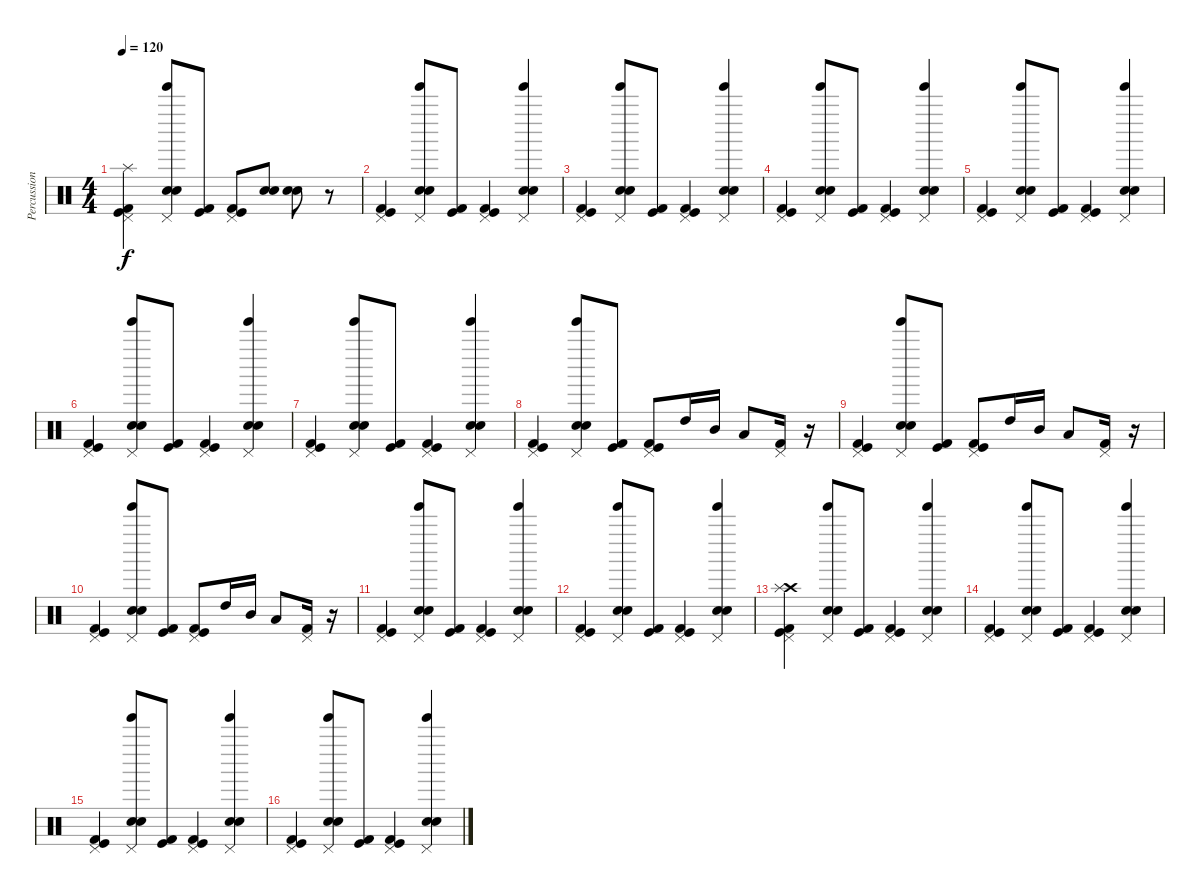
\track ("Percussion" "Percussion") {instrument percussion}
\staff {score}
\articulation defaults
\ts (4 4)
\tempo 120
\clef neutral
\ks c
("Splash (hit)" "Pedal Hi-Hat (hit)" "Kick (hit)" "Kick (hit) 2").4{dy f} ("Tinkle Bell (hit)" "Pedal Hi-Hat (hit)" "Snare (hit) 2" "Electric Snare (hit)").8 ("Kick (hit)" "Kick (hit) 2").8 ("Pedal Hi-Hat (hit)" "Kick (hit)" "Kick (hit) 2").8 ("Snare (hit) 2" "Snare (hit) 2").8 ("Snare (hit) 2" "Snare (hit) 2").8 r.8 |
("Pedal Hi-Hat (hit)" "Kick (hit)" "Kick (hit) 2").4 ("Tinkle Bell (hit)" "Pedal Hi-Hat (hit)" "Snare (hit) 2" "Electric Snare (hit)").8 ("Kick (hit)" "Kick (hit) 2").8 ("Pedal Hi-Hat (hit)" "Kick (hit)" "Kick (hit) 2").4 ("Tinkle Bell (hit)" "Pedal Hi-Hat (hit)" "Snare (hit) 2" "Electric Snare (hit)").4 |
("Pedal Hi-Hat (hit)" "Kick (hit)" "Kick (hit) 2").4 ("Tinkle Bell (hit)" "Pedal Hi-Hat (hit)" "Snare (hit) 2" "Electric Snare (hit)").8 ("Kick (hit)" "Kick (hit) 2").8 ("Pedal Hi-Hat (hit)" "Kick (hit)" "Kick (hit) 2").4 ("Tinkle Bell (hit)" "Pedal Hi-Hat (hit)" "Snare (hit) 2" "Electric Snare (hit)").4 |
("Pedal Hi-Hat (hit)" "Kick (hit)" "Kick (hit) 2").4 ("Tinkle Bell (hit)" "Pedal Hi-Hat (hit)" "Snare (hit) 2" "Electric Snare (hit)").8 ("Kick (hit)" "Kick (hit) 2").8 ("Pedal Hi-Hat (hit)" "Kick (hit)" "Kick (hit) 2").4 ("Tinkle Bell (hit)" "Pedal Hi-Hat (hit)" "Snare (hit) 2" "Electric Snare (hit)").4 |
("Pedal Hi-Hat (hit)" "Kick (hit)" "Kick (hit) 2").4 ("Tinkle Bell (hit)" "Pedal Hi-Hat (hit)" "Snare (hit) 2" "Electric Snare (hit)").8 ("Kick (hit)" "Kick (hit) 2").8 ("Pedal Hi-Hat (hit)" "Kick (hit)" "Kick (hit) 2").4 ("Tinkle Bell (hit)" "Pedal Hi-Hat (hit)" "Snare (hit) 2" "Electric Snare (hit)").4 |
("Pedal Hi-Hat (hit)" "Kick (hit)" "Kick (hit) 2").4 ("Tinkle Bell (hit)" "Pedal Hi-Hat (hit)" "Snare (hit) 2" "Electric Snare (hit)").8 ("Kick (hit)" "Kick (hit) 2").8 ("Pedal Hi-Hat (hit)" "Kick (hit)" "Kick (hit) 2").4 ("Tinkle Bell (hit)" "Pedal Hi-Hat (hit)" "Snare (hit) 2" "Electric Snare (hit)").4 |
("Pedal Hi-Hat (hit)" "Kick (hit)" "Kick (hit) 2").4 ("Tinkle Bell (hit)" "Pedal Hi-Hat (hit)" "Snare (hit) 2" "Electric Snare (hit)").8 ("Kick (hit)" "Kick (hit) 2").8 ("Pedal Hi-Hat (hit)" "Kick (hit)" "Kick (hit) 2").4 ("Tinkle Bell (hit)" "Pedal Hi-Hat (hit)" "Snare (hit) 2" "Electric Snare (hit)").4 |
("Pedal Hi-Hat (hit)" "Kick (hit)" "Kick (hit) 2").4 ("Tinkle Bell (hit)" "Pedal Hi-Hat (hit)" "Snare (hit) 2" "Electric Snare (hit)").8 ("Kick (hit)" "Kick (hit) 2").8 ("Pedal Hi-Hat (hit)" "Kick (hit)" "Kick (hit) 2").8 "High Tom (hit)".16 "Mid Tom (hit)".16 "Low Tom (hit)".8 ("Pedal Hi-Hat (hit)" "Kick (hit) 2").16 r.16 |
("Pedal Hi-Hat (hit)" "Kick (hit)" "Kick (hit) 2").4 ("Tinkle Bell (hit)" "Pedal Hi-Hat (hit)" "Snare (hit) 2" "Electric Snare (hit)").8 ("Kick (hit)" "Kick (hit) 2").8 ("Pedal Hi-Hat (hit)" "Kick (hit)" "Kick (hit) 2").8 "High Tom (hit)".16 "Mid Tom (hit)".16 "Low Tom (hit)".8 ("Pedal Hi-Hat (hit)" "Kick (hit) 2").16 r.16 |
("Pedal Hi-Hat (hit)" "Kick (hit)" "Kick (hit) 2").4 ("Tinkle Bell (hit)" "Pedal Hi-Hat (hit)" "Snare (hit) 2" "Electric Snare (hit)").8 ("Kick (hit)" "Kick (hit) 2").8 ("Pedal Hi-Hat (hit)" "Kick (hit)" "Kick (hit) 2").8 "High Tom (hit)".16 "Mid Tom (hit)".16 "Low Tom (hit)".8 ("Pedal Hi-Hat (hit)" "Kick (hit) 2").16 r.16 |
("Pedal Hi-Hat (hit)" "Kick (hit)" "Kick (hit) 2").4 ("Tinkle Bell (hit)" "Pedal Hi-Hat (hit)" "Snare (hit) 2" "Electric Snare (hit)").8 ("Kick (hit)" "Kick (hit) 2").8 ("Pedal Hi-Hat (hit)" "Kick (hit)" "Kick (hit) 2").4 ("Tinkle Bell (hit)" "Pedal Hi-Hat (hit)" "Snare (hit) 2" "Electric Snare (hit)").4 |
("Pedal Hi-Hat (hit)" "Kick (hit)" "Kick (hit) 2").4 ("Tinkle Bell (hit)" "Pedal Hi-Hat (hit)" "Snare (hit) 2" "Electric Snare (hit)").8 ("Kick (hit)" "Kick (hit) 2").8 ("Pedal Hi-Hat (hit)" "Kick (hit)" "Kick (hit) 2").4 ("Tinkle Bell (hit)" "Pedal Hi-Hat (hit)" "Snare (hit) 2" "Electric Snare (hit)").4 |
("Crash high (hit)" "Pedal Hi-Hat (hit)" "Splash (hit)" "Kick (hit)" "Kick (hit) 2").4 ("Tinkle Bell (hit)" "Pedal Hi-Hat (hit)" "Snare (hit) 2" "Electric Snare (hit)").8 ("Kick (hit)" "Kick (hit) 2").8 ("Pedal Hi-Hat (hit)" "Kick (hit)" "Kick (hit) 2").4 ("Tinkle Bell (hit)" "Pedal Hi-Hat (hit)" "Snare (hit) 2" "Electric Snare (hit)").4 |
("Pedal Hi-Hat (hit)" "Kick (hit)" "Kick (hit) 2").4 ("Tinkle Bell (hit)" "Pedal Hi-Hat (hit)" "Snare (hit) 2" "Electric Snare (hit)").8 ("Kick (hit)" "Kick (hit) 2").8 ("Pedal Hi-Hat (hit)" "Kick (hit)" "Kick (hit) 2").4 ("Tinkle Bell (hit)" "Pedal Hi-Hat (hit)" "Snare (hit) 2" "Electric Snare (hit)").4 |
("Pedal Hi-Hat (hit)" "Kick (hit)" "Kick (hit) 2").4 ("Tinkle Bell (hit)" "Pedal Hi-Hat (hit)" "Snare (hit) 2" "Electric Snare (hit)").8 ("Kick (hit)" "Kick (hit) 2").8 ("Pedal Hi-Hat (hit)" "Kick (hit)" "Kick (hit) 2").4 ("Tinkle Bell (hit)" "Pedal Hi-Hat (hit)" "Snare (hit) 2" "Electric Snare (hit)").4 |
("Pedal Hi-Hat (hit)" "Kick (hit)" "Kick (hit) 2").4 ("Tinkle Bell (hit)" "Pedal Hi-Hat (hit)" "Snare (hit) 2" "Electric Snare (hit)").8 ("Kick (hit)" "Kick (hit) 2").8 ("Pedal Hi-Hat (hit)" "Kick (hit)" "Kick (hit) 2").4 ("Tinkle Bell (hit)" "Pedal Hi-Hat (hit)" "Snare (hit) 2" "Electric Snare (hit)").4
